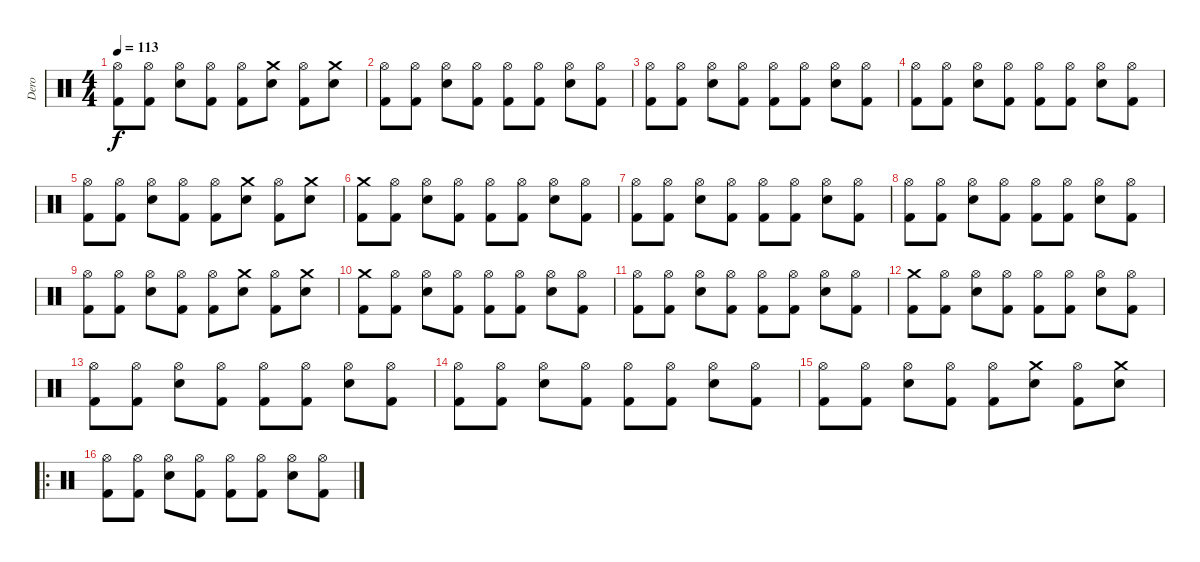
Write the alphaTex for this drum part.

\track ("Dero" "Dero") {instrument percussion}
\staff {score}
\articulation defaults
\ts (4 4)
\tempo 113
\clef neutral
\ks c
("Hi-Hat (open)" "Kick (hit) 2").8{dy f} ("Hi-Hat (open)" "Kick (hit) 2").8 ("Hi-Hat (open)" "Electric Snare (hit)").8 ("Hi-Hat (open)" "Kick (hit) 2").8 ("Hi-Hat (open)" "Kick (hit) 2").8 ("Crash medium (hit)" "Electric Snare (hit)").8 ("Hi-Hat (open)" "Kick (hit) 2").8 ("Crash medium (hit)" "Electric Snare (hit)").8 |
("Hi-Hat (open)" "Kick (hit) 2").8 ("Hi-Hat (open)" "Kick (hit) 2").8 ("Hi-Hat (open)" "Electric Snare (hit)").8 ("Hi-Hat (open)" "Kick (hit) 2").8 ("Hi-Hat (open)" "Kick (hit) 2").8 ("Hi-Hat (open)" "Kick (hit) 2").8 ("Hi-Hat (open)" "Electric Snare (hit)").8 ("Hi-Hat (open)" "Kick (hit) 2").8 |
("Hi-Hat (open)" "Kick (hit) 2").8 ("Hi-Hat (open)" "Kick (hit) 2").8 ("Hi-Hat (open)" "Electric Snare (hit)").8 ("Hi-Hat (open)" "Kick (hit) 2").8 ("Hi-Hat (open)" "Kick (hit) 2").8 ("Hi-Hat (open)" "Kick (hit) 2").8 ("Hi-Hat (open)" "Electric Snare (hit)").8 ("Hi-Hat (open)" "Kick (hit) 2").8 |
("Hi-Hat (open)" "Kick (hit) 2").8 ("Hi-Hat (open)" "Kick (hit) 2").8 ("Hi-Hat (open)" "Electric Snare (hit)").8 ("Hi-Hat (open)" "Kick (hit) 2").8 ("Hi-Hat (open)" "Kick (hit) 2").8 ("Hi-Hat (open)" "Kick (hit) 2").8 ("Hi-Hat (open)" "Electric Snare (hit)").8 ("Hi-Hat (open)" "Kick (hit) 2").8 |
("Hi-Hat (open)" "Kick (hit) 2").8 ("Hi-Hat (open)" "Kick (hit) 2").8 ("Hi-Hat (open)" "Electric Snare (hit)").8 ("Hi-Hat (open)" "Kick (hit) 2").8 ("Hi-Hat (open)" "Kick (hit) 2").8 ("Crash medium (hit)" "Electric Snare (hit)").8 ("Hi-Hat (open)" "Kick (hit) 2").8 ("Crash medium (hit)" "Electric Snare (hit)").8 |
("Crash medium (hit)" "Kick (hit) 2").8 ("Hi-Hat (open)" "Kick (hit) 2").8 ("Hi-Hat (open)" "Electric Snare (hit)").8 ("Hi-Hat (open)" "Kick (hit) 2").8 ("Hi-Hat (open)" "Kick (hit) 2").8 ("Hi-Hat (open)" "Kick (hit) 2").8 ("Hi-Hat (open)" "Electric Snare (hit)").8 ("Hi-Hat (open)" "Kick (hit) 2").8 |
("Hi-Hat (open)" "Kick (hit) 2").8 ("Hi-Hat (open)" "Kick (hit) 2").8 ("Hi-Hat (open)" "Electric Snare (hit)").8 ("Hi-Hat (open)" "Kick (hit) 2").8 ("Hi-Hat (open)" "Kick (hit) 2").8 ("Hi-Hat (open)" "Kick (hit) 2").8 ("Hi-Hat (open)" "Electric Snare (hit)").8 ("Hi-Hat (open)" "Kick (hit) 2").8 |
("Hi-Hat (open)" "Kick (hit) 2").8 ("Hi-Hat (open)" "Kick (hit) 2").8 ("Hi-Hat (open)" "Electric Snare (hit)").8 ("Hi-Hat (open)" "Kick (hit) 2").8 ("Hi-Hat (open)" "Kick (hit) 2").8 ("Hi-Hat (open)" "Kick (hit) 2").8 ("Hi-Hat (open)" "Electric Snare (hit)").8 ("Hi-Hat (open)" "Kick (hit) 2").8 |
("Hi-Hat (open)" "Kick (hit) 2").8 ("Hi-Hat (open)" "Kick (hit) 2").8 ("Hi-Hat (open)" "Electric Snare (hit)").8 ("Hi-Hat (open)" "Kick (hit) 2").8 ("Hi-Hat (open)" "Kick (hit) 2").8 ("Crash medium (hit)" "Electric Snare (hit)").8 ("Hi-Hat (open)" "Kick (hit) 2").8 ("Crash medium (hit)" "Electric Snare (hit)").8 |
("Crash medium (hit)" "Kick (hit) 2").8 ("Hi-Hat (open)" "Kick (hit) 2").8 ("Hi-Hat (open)" "Electric Snare (hit)").8 ("Hi-Hat (open)" "Kick (hit) 2").8 ("Hi-Hat (open)" "Kick (hit) 2").8 ("Hi-Hat (open)" "Kick (hit) 2").8 ("Hi-Hat (open)" "Electric Snare (hit)").8 ("Hi-Hat (open)" "Kick (hit) 2").8 |
("Hi-Hat (open)" "Kick (hit) 2").8 ("Hi-Hat (open)" "Kick (hit) 2").8 ("Hi-Hat (open)" "Electric Snare (hit)").8 ("Hi-Hat (open)" "Kick (hit) 2").8 ("Hi-Hat (open)" "Kick (hit) 2").8 ("Hi-Hat (open)" "Kick (hit) 2").8 ("Hi-Hat (open)" "Electric Snare (hit)").8 ("Hi-Hat (open)" "Kick (hit) 2").8 |
("Crash medium (hit)" "Kick (hit) 2").8 ("Hi-Hat (open)" "Kick (hit) 2").8 ("Hi-Hat (open)" "Electric Snare (hit)").8 ("Hi-Hat (open)" "Kick (hit) 2").8 ("Hi-Hat (open)" "Kick (hit) 2").8 ("Hi-Hat (open)" "Kick (hit) 2").8 ("Hi-Hat (open)" "Electric Snare (hit)").8 ("Hi-Hat (open)" "Kick (hit) 2").8 |
("Hi-Hat (open)" "Kick (hit) 2").8 ("Hi-Hat (open)" "Kick (hit) 2").8 ("Hi-Hat (open)" "Electric Snare (hit)").8 ("Hi-Hat (open)" "Kick (hit) 2").8 ("Hi-Hat (open)" "Kick (hit) 2").8 ("Hi-Hat (open)" "Kick (hit) 2").8 ("Hi-Hat (open)" "Electric Snare (hit)").8 ("Hi-Hat (open)" "Kick (hit) 2").8 |
("Hi-Hat (open)" "Kick (hit) 2").8 ("Hi-Hat (open)" "Kick (hit) 2").8 ("Hi-Hat (open)" "Electric Snare (hit)").8 ("Hi-Hat (open)" "Kick (hit) 2").8 ("Hi-Hat (open)" "Kick (hit) 2").8 ("Hi-Hat (open)" "Kick (hit) 2").8 ("Hi-Hat (open)" "Electric Snare (hit)").8 ("Hi-Hat (open)" "Kick (hit) 2").8 |
("Hi-Hat (open)" "Kick (hit) 2").8 ("Hi-Hat (open)" "Kick (hit) 2").8 ("Hi-Hat (open)" "Electric Snare (hit)").8 ("Hi-Hat (open)" "Kick (hit) 2").8 ("Hi-Hat (open)" "Kick (hit) 2").8 ("Crash medium (hit)" "Electric Snare (hit)").8 ("Hi-Hat (open)" "Kick (hit) 2").8 ("Crash medium (hit)" "Electric Snare (hit)").8 |
\ro
("Hi-Hat (open)" "Kick (hit) 2").8 ("Hi-Hat (open)" "Kick (hit) 2").8 ("Hi-Hat (open)" "Electric Snare (hit)").8 ("Hi-Hat (open)" "Kick (hit) 2").8 ("Hi-Hat (open)" "Kick (hit) 2").8 ("Hi-Hat (open)" "Kick (hit) 2").8 ("Hi-Hat (open)" "Electric Snare (hit)").8 ("Hi-Hat (open)" "Kick (hit) 2").8
